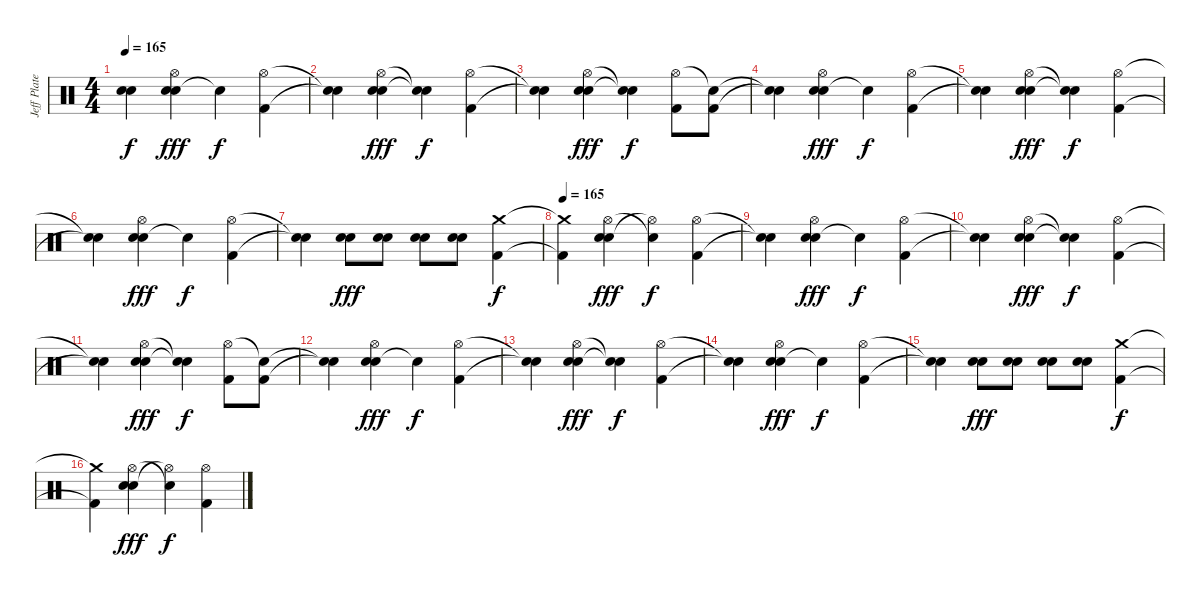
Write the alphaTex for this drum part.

\track ("Jeff Plate" "Jeff Plate") {instrument percussion}
\staff {score}
\articulation defaults
\ts (4 4)
\tempo 165
\clef neutral
\ks c
("Snare (hit)"{t} "Snare (hit)"{t}).4{dy f} ("Electric Snare (hit)" "Hi-Hat (open)" "Electric Snare (hit)").4{dy fff} "Snare (hit)"{t}.4{dy f} ("Hi-Hat (open)" "Kick (hit) 2").4 |
("Snare (hit)"{t} "Snare (hit)"{t}).4 ("Electric Snare (hit)" "Hi-Hat (open)" "Electric Snare (hit)").4{dy fff} ("Snare (hit)"{t} "Snare (hit)"{t}).4{dy f} ("Hi-Hat (open)" "Kick (hit) 2").4 |
("Snare (hit)"{t} "Snare (hit)"{t}).4 ("Electric Snare (hit)" "Hi-Hat (open)" "Electric Snare (hit)").4{dy fff} ("Snare (hit)"{t} "Snare (hit)"{t}).4{dy f} ("Hi-Hat (open)" "Kick (hit) 2").8 ("Snare (hit)"{t} "Kick (hit) 2").8 |
("Snare (hit)"{t} "Snare (hit)"{t}).4 ("Electric Snare (hit)" "Hi-Hat (open)" "Electric Snare (hit)").4{dy fff} "Snare (hit)"{t}.4{dy f} ("Hi-Hat (open)" "Kick (hit) 2").4 |
("Snare (hit)"{t} "Snare (hit)"{t}).4 ("Electric Snare (hit)" "Hi-Hat (open)" "Electric Snare (hit)").4{dy fff} ("Snare (hit)"{t} "Snare (hit)"{t}).4{dy f} ("Hi-Hat (open)" "Kick (hit) 2").4 |
("Snare (hit)"{t} "Snare (hit)"{t}).4 ("Electric Snare (hit)" "Hi-Hat (open)" "Electric Snare (hit)").4{dy fff} "Snare (hit)"{t}.4{dy f} ("Hi-Hat (open)" "Kick (hit) 2").4 |
("Electric Snare (hit)"{t} "Snare (hit)"{t}).4 ("Electric Snare (hit)" "Electric Snare (hit)").8{dy fff} ("Electric Snare (hit)" "Electric Snare (hit)").8 ("Electric Snare (hit)" "Electric Snare (hit)").8 ("Electric Snare (hit)" "Electric Snare (hit)").8 ("Crash medium (hit)" "Kick (hit) 2").4{dy f} |
\tempo 165
("Crash medium (hit)"{t} "Kick (hit) 2"{t}).4 ("Electric Snare (hit)" "Hi-Hat (open)" "Electric Snare (hit)").4{dy fff} ("Hi-Hat (open)"{t} "Electric Snare (hit)"{t}).4{dy f} ("Hi-Hat (open)" "Kick (hit) 2").4 |
("Snare (hit)"{t} "Snare (hit)"{t}).4 ("Electric Snare (hit)" "Hi-Hat (open)" "Electric Snare (hit)").4{dy fff} "Snare (hit)"{t}.4{dy f} ("Hi-Hat (open)" "Kick (hit) 2").4 |
("Snare (hit)"{t} "Snare (hit)"{t}).4 ("Electric Snare (hit)" "Hi-Hat (open)" "Electric Snare (hit)").4{dy fff} ("Snare (hit)"{t} "Snare (hit)"{t}).4{dy f} ("Hi-Hat (open)" "Kick (hit) 2").4 |
("Snare (hit)"{t} "Snare (hit)"{t}).4 ("Electric Snare (hit)" "Hi-Hat (open)" "Electric Snare (hit)").4{dy fff} ("Snare (hit)"{t} "Snare (hit)"{t}).4{dy f} ("Hi-Hat (open)" "Kick (hit) 2").8 ("Snare (hit)"{t} "Kick (hit) 2").8 |
("Snare (hit)"{t} "Snare (hit)"{t}).4 ("Electric Snare (hit)" "Hi-Hat (open)" "Electric Snare (hit)").4{dy fff} "Snare (hit)"{t}.4{dy f} ("Hi-Hat (open)" "Kick (hit) 2").4 |
("Snare (hit)"{t} "Snare (hit)"{t}).4 ("Electric Snare (hit)" "Hi-Hat (open)" "Electric Snare (hit)").4{dy fff} ("Snare (hit)"{t} "Snare (hit)"{t}).4{dy f} ("Hi-Hat (open)" "Kick (hit) 2").4 |
("Snare (hit)"{t} "Snare (hit)"{t}).4 ("Electric Snare (hit)" "Hi-Hat (open)" "Electric Snare (hit)").4{dy fff} "Snare (hit)"{t}.4{dy f} ("Hi-Hat (open)" "Kick (hit) 2").4 |
("Electric Snare (hit)"{t} "Snare (hit)"{t}).4 ("Electric Snare (hit)" "Electric Snare (hit)").8{dy fff} ("Electric Snare (hit)" "Electric Snare (hit)").8 ("Electric Snare (hit)" "Electric Snare (hit)").8 ("Electric Snare (hit)" "Electric Snare (hit)").8 ("Crash medium (hit)" "Kick (hit) 2").4{dy f} |
("Crash medium (hit)"{t} "Kick (hit) 2"{t}).4 ("Electric Snare (hit)" "Hi-Hat (open)" "Electric Snare (hit)").4{dy fff} ("Hi-Hat (open)"{t} "Electric Snare (hit)"{t}).4{dy f} ("Hi-Hat (open)" "Kick (hit) 2").4
